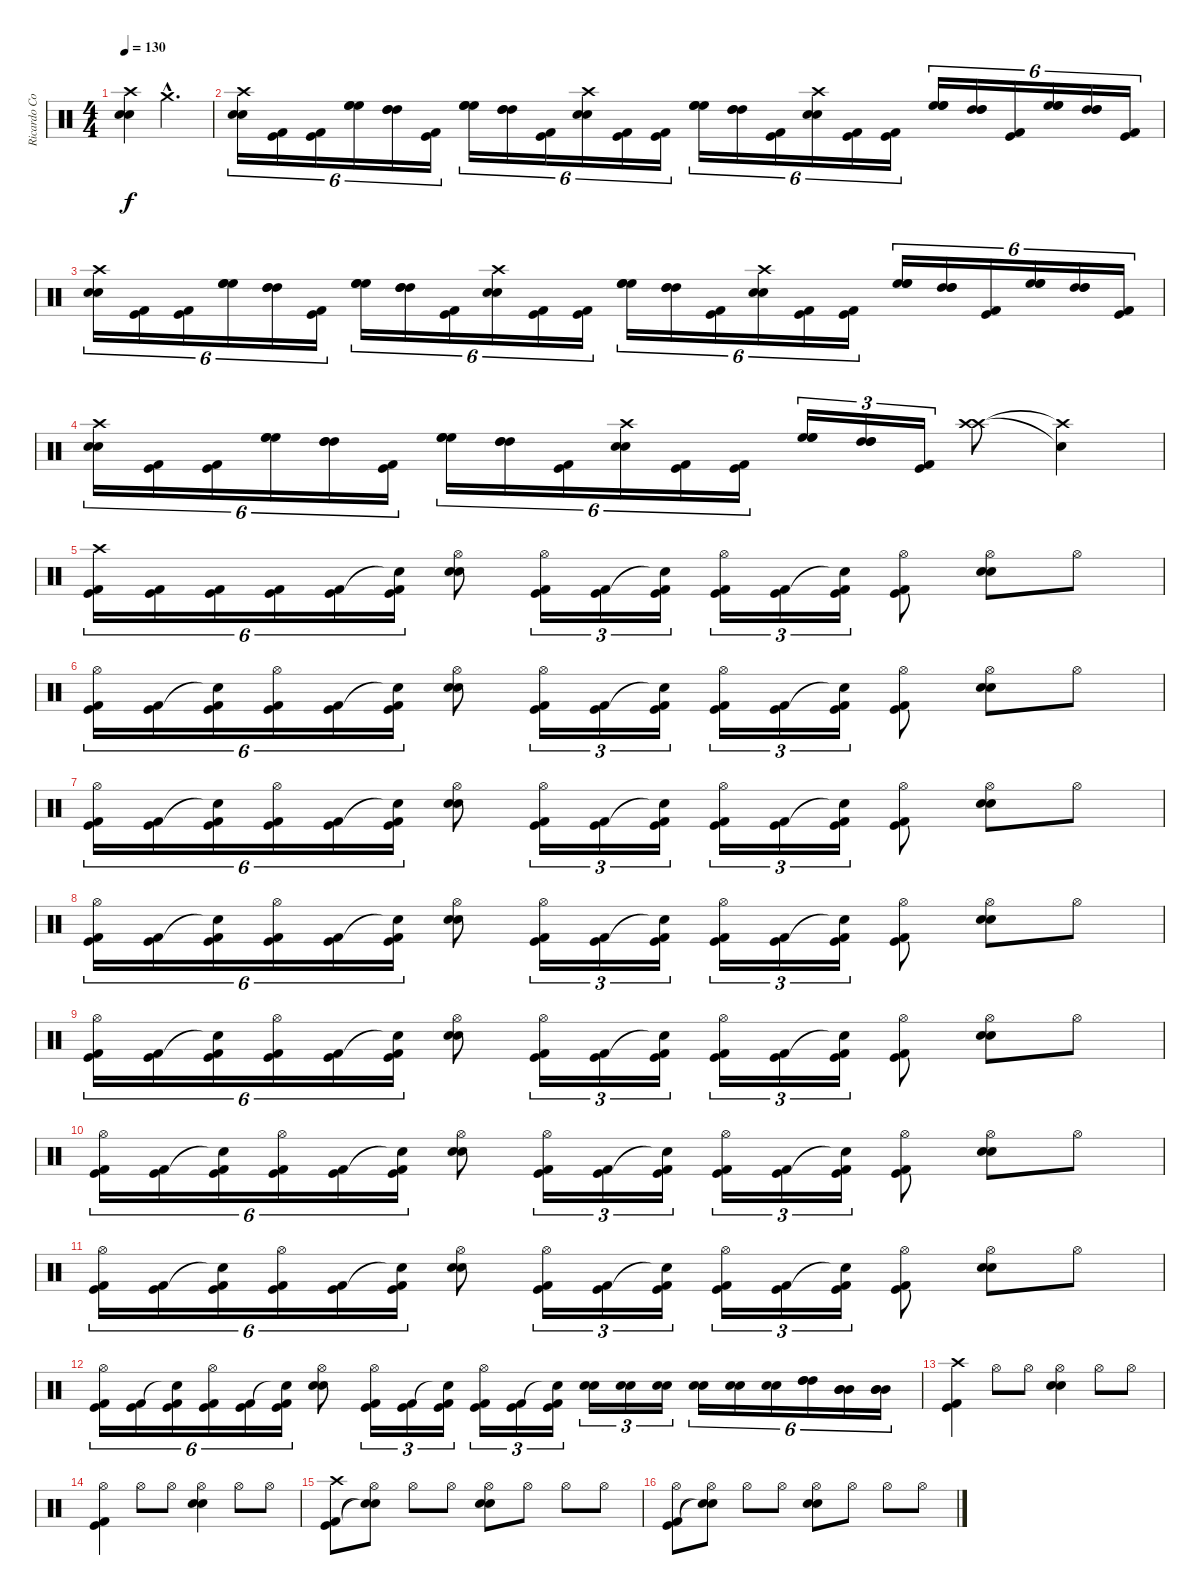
\track ("Ricardo Confessori" "Ricardo Co") {instrument percussion}
\staff {score}
\articulation defaults
\ts (4 4)
\tempo 130
\clef neutral
\ks c
("Crash high (hit)" "Electric Snare (hit)" "Snare (hit) 2").4{dy f} "Crash medium (hit)"{hac}.2{d} |
("Crash high (hit)" "Electric Snare (hit)" "Snare (hit) 2").16{tu (6 4)} ("Kick (hit)" "Kick (hit) 2").16{tu (6 4)} ("Kick (hit)" "Kick (hit) 2").16{tu (6 4)} ("High Floor Tom (hit)" "High Floor Tom (hit)" "High Floor Tom (hit)").16{tu (6 4)} ("High Tom (hit)" "High Tom (hit)" "High Tom (hit)").16{tu (6 4)} ("Kick (hit)" "Kick (hit) 2").16{tu (6 4)} ("High Floor Tom (hit)" "High Floor Tom (hit)" "High Floor Tom (hit)").16{tu (6 4)} ("High Tom (hit)" "High Tom (hit)" "High Tom (hit)").16{tu (6 4)} ("Kick (hit) 2" "Kick (hit)").16{tu (6 4)} ("Crash high (hit)" "Electric Snare (hit)" "Snare (hit) 2").16{tu (6 4)} ("Kick (hit)" "Kick (hit) 2").16{tu (6 4)} ("Kick (hit)" "Kick (hit) 2").16{tu (6 4)} ("High Floor Tom (hit)" "High Floor Tom (hit)" "High Floor Tom (hit)").16{tu (6 4)} ("High Tom (hit)" "High Tom (hit)" "High Tom (hit)").16{tu (6 4)} ("Kick (hit) 2" "Kick (hit)").16{tu (6 4)} ("Crash high (hit)" "Electric Snare (hit)" "Snare (hit) 2").16{tu (6 4)} ("Kick (hit)" "Kick (hit) 2").16{tu (6 4)} ("Kick (hit)" "Kick (hit) 2").16{tu (6 4)} ("High Floor Tom (hit)" "High Floor Tom (hit)" "High Floor Tom (hit)").16{tu (6 4)} ("High Tom (hit)" "High Tom (hit)" "High Tom (hit)").16{tu (6 4)} ("Kick (hit) 2" "Kick (hit)").16{tu (6 4)} ("High Floor Tom (hit)" "High Floor Tom (hit)" "High Floor Tom (hit)").16{tu (6 4)} ("High Tom (hit)" "High Tom (hit)" "High Tom (hit)").16{tu (6 4)} ("Kick (hit)" "Kick (hit) 2").16{tu (6 4)} |
("Crash high (hit)" "Electric Snare (hit)" "Snare (hit) 2").16{tu (6 4)} ("Kick (hit)" "Kick (hit) 2").16{tu (6 4)} ("Kick (hit)" "Kick (hit) 2").16{tu (6 4)} ("High Floor Tom (hit)" "High Floor Tom (hit)" "High Floor Tom (hit)").16{tu (6 4)} ("High Tom (hit)" "High Tom (hit)" "High Tom (hit)").16{tu (6 4)} ("Kick (hit)" "Kick (hit) 2").16{tu (6 4)} ("High Floor Tom (hit)" "High Floor Tom (hit)" "High Floor Tom (hit)").16{tu (6 4)} ("High Tom (hit)" "High Tom (hit)" "High Tom (hit)").16{tu (6 4)} ("Kick (hit) 2" "Kick (hit)").16{tu (6 4)} ("Crash high (hit)" "Electric Snare (hit)" "Snare (hit) 2").16{tu (6 4)} ("Kick (hit)" "Kick (hit) 2").16{tu (6 4)} ("Kick (hit)" "Kick (hit) 2").16{tu (6 4)} ("High Floor Tom (hit)" "High Floor Tom (hit)" "High Floor Tom (hit)").16{tu (6 4)} ("High Tom (hit)" "High Tom (hit)" "High Tom (hit)").16{tu (6 4)} ("Kick (hit) 2" "Kick (hit)").16{tu (6 4)} ("Crash high (hit)" "Electric Snare (hit)" "Snare (hit) 2").16{tu (6 4)} ("Kick (hit)" "Kick (hit) 2").16{tu (6 4)} ("Kick (hit)" "Kick (hit) 2").16{tu (6 4)} ("High Floor Tom (hit)" "High Floor Tom (hit)" "High Floor Tom (hit)").16{tu (6 4)} ("High Tom (hit)" "High Tom (hit)" "High Tom (hit)").16{tu (6 4)} ("Kick (hit) 2" "Kick (hit)").16{tu (6 4)} ("High Floor Tom (hit)" "High Floor Tom (hit)" "High Floor Tom (hit)").16{tu (6 4)} ("High Tom (hit)" "High Tom (hit)" "High Tom (hit)").16{tu (6 4)} ("Kick (hit)" "Kick (hit) 2").16{tu (6 4)} |
("Crash high (hit)" "Electric Snare (hit)" "Snare (hit) 2").16{tu (6 4)} ("Kick (hit)" "Kick (hit) 2").16{tu (6 4)} ("Kick (hit)" "Kick (hit) 2").16{tu (6 4)} ("High Floor Tom (hit)" "High Floor Tom (hit)" "High Floor Tom (hit)").16{tu (6 4)} ("High Tom (hit)" "High Tom (hit)" "High Tom (hit)").16{tu (6 4)} ("Kick (hit)" "Kick (hit) 2").16{tu (6 4)} ("High Floor Tom (hit)" "High Floor Tom (hit)" "High Floor Tom (hit)").16{tu (6 4)} ("High Tom (hit)" "High Tom (hit)" "High Tom (hit)").16{tu (6 4)} ("Kick (hit)" "Kick (hit) 2").16{tu (6 4)} ("Crash high (hit)" "Electric Snare (hit)" "Snare (hit) 2").16{tu (6 4)} ("Kick (hit)" "Kick (hit) 2").16{tu (6 4)} ("Kick (hit) 2" "Kick (hit)").16{tu (6 4)} ("High Floor Tom (hit)" "High Floor Tom (hit)" "High Floor Tom (hit)").16{tu (3 2)} ("High Tom (hit)" "High Tom (hit)" "High Tom (hit)").16{tu (3 2)} ("Kick (hit)" "Kick (hit) 2").16{tu (3 2)} ("Crash high (hit)" "Crash high (hit)").8 ("Crash high (hit)"{t} "Snare (hit)"{t}).4 |
("Crash high (hit)" "Kick (hit)" "Kick (hit) 2").16{tu (6 4)} ("Kick (hit)" "Kick (hit) 2").16{tu (6 4)} ("Kick (hit)" "Kick (hit) 2").16{tu (6 4)} ("Kick (hit)" "Kick (hit) 2").16{tu (6 4)} ("Kick (hit)" "Kick (hit) 2").16{tu (6 4)} ("Snare (hit)"{t} "Kick (hit)" "Kick (hit) 2").16{tu (6 4)} ("Hi-Hat (open)" "Electric Snare (hit)" "Snare (hit) 2").8 ("Hi-Hat (open)" "Kick (hit)" "Kick (hit) 2").16{tu (3 2)} ("Kick (hit)" "Kick (hit) 2").16{tu (3 2)} ("Snare (hit)"{t} "Kick (hit)" "Kick (hit) 2").16{tu (3 2)} ("Hi-Hat (open)" "Kick (hit)" "Kick (hit) 2").16{tu (3 2)} ("Kick (hit)" "Kick (hit) 2").16{tu (3 2)} ("Snare (hit)"{t} "Kick (hit)" "Kick (hit) 2").16{tu (3 2)} ("Hi-Hat (open)" "Kick (hit)" "Kick (hit) 2").8 ("Hi-Hat (open)" "Electric Snare (hit)" "Snare (hit) 2").8 "Hi-Hat (open)".8 |
("Hi-Hat (open)" "Kick (hit)" "Kick (hit) 2").16{tu (6 4)} ("Kick (hit)" "Kick (hit) 2").16{tu (6 4)} ("Snare (hit)"{t} "Kick (hit)" "Kick (hit) 2").16{tu (6 4)} ("Hi-Hat (open)" "Kick (hit)" "Kick (hit) 2").16{tu (6 4)} ("Kick (hit)" "Kick (hit) 2").16{tu (6 4)} ("Snare (hit)"{t} "Kick (hit)" "Kick (hit) 2").16{tu (6 4)} ("Hi-Hat (open)" "Electric Snare (hit)" "Snare (hit) 2").8 ("Hi-Hat (open)" "Kick (hit)" "Kick (hit) 2").16{tu (3 2)} ("Kick (hit)" "Kick (hit) 2").16{tu (3 2)} ("Snare (hit)"{t} "Kick (hit)" "Kick (hit) 2").16{tu (3 2)} ("Hi-Hat (open)" "Kick (hit)" "Kick (hit) 2").16{tu (3 2)} ("Kick (hit)" "Kick (hit) 2").16{tu (3 2)} ("Snare (hit)"{t} "Kick (hit)" "Kick (hit) 2").16{tu (3 2)} ("Hi-Hat (open)" "Kick (hit)" "Kick (hit) 2").8 ("Hi-Hat (open)" "Electric Snare (hit)" "Snare (hit) 2").8 "Hi-Hat (open)".8 |
("Hi-Hat (open)" "Kick (hit)" "Kick (hit) 2").16{tu (6 4)} ("Kick (hit)" "Kick (hit) 2").16{tu (6 4)} ("Snare (hit)"{t} "Kick (hit)" "Kick (hit) 2").16{tu (6 4)} ("Hi-Hat (open)" "Kick (hit)" "Kick (hit) 2").16{tu (6 4)} ("Kick (hit)" "Kick (hit) 2").16{tu (6 4)} ("Snare (hit)"{t} "Kick (hit)" "Kick (hit) 2").16{tu (6 4)} ("Hi-Hat (open)" "Electric Snare (hit)" "Snare (hit) 2").8 ("Hi-Hat (open)" "Kick (hit)" "Kick (hit) 2").16{tu (3 2)} ("Kick (hit)" "Kick (hit) 2").16{tu (3 2)} ("Snare (hit)"{t} "Kick (hit)" "Kick (hit) 2").16{tu (3 2)} ("Hi-Hat (open)" "Kick (hit)" "Kick (hit) 2").16{tu (3 2)} ("Kick (hit)" "Kick (hit) 2").16{tu (3 2)} ("Snare (hit)"{t} "Kick (hit)" "Kick (hit) 2").16{tu (3 2)} ("Hi-Hat (open)" "Kick (hit)" "Kick (hit) 2").8 ("Hi-Hat (open)" "Electric Snare (hit)" "Snare (hit) 2").8 "Hi-Hat (open)".8 |
("Hi-Hat (open)" "Kick (hit)" "Kick (hit) 2").16{tu (6 4)} ("Kick (hit)" "Kick (hit) 2").16{tu (6 4)} ("Snare (hit)"{t} "Kick (hit)" "Kick (hit) 2").16{tu (6 4)} ("Hi-Hat (open)" "Kick (hit)" "Kick (hit) 2").16{tu (6 4)} ("Kick (hit)" "Kick (hit) 2").16{tu (6 4)} ("Snare (hit)"{t} "Kick (hit)" "Kick (hit) 2").16{tu (6 4)} ("Hi-Hat (open)" "Electric Snare (hit)" "Snare (hit) 2").8 ("Hi-Hat (open)" "Kick (hit)" "Kick (hit) 2").16{tu (3 2)} ("Kick (hit)" "Kick (hit) 2").16{tu (3 2)} ("Snare (hit)"{t} "Kick (hit)" "Kick (hit) 2").16{tu (3 2)} ("Hi-Hat (open)" "Kick (hit)" "Kick (hit) 2").16{tu (3 2)} ("Kick (hit)" "Kick (hit) 2").16{tu (3 2)} ("Snare (hit)"{t} "Kick (hit)" "Kick (hit) 2").16{tu (3 2)} ("Hi-Hat (open)" "Kick (hit)" "Kick (hit) 2").8 ("Hi-Hat (open)" "Electric Snare (hit)" "Snare (hit) 2").8 "Hi-Hat (open)".8 |
("Hi-Hat (open)" "Kick (hit)" "Kick (hit) 2").16{tu (6 4)} ("Kick (hit)" "Kick (hit) 2").16{tu (6 4)} ("Snare (hit)"{t} "Kick (hit)" "Kick (hit) 2").16{tu (6 4)} ("Hi-Hat (open)" "Kick (hit)" "Kick (hit) 2").16{tu (6 4)} ("Kick (hit)" "Kick (hit) 2").16{tu (6 4)} ("Snare (hit)"{t} "Kick (hit)" "Kick (hit) 2").16{tu (6 4)} ("Hi-Hat (open)" "Electric Snare (hit)" "Snare (hit) 2").8 ("Hi-Hat (open)" "Kick (hit)" "Kick (hit) 2").16{tu (3 2)} ("Kick (hit)" "Kick (hit) 2").16{tu (3 2)} ("Snare (hit)"{t} "Kick (hit)" "Kick (hit) 2").16{tu (3 2)} ("Hi-Hat (open)" "Kick (hit)" "Kick (hit) 2").16{tu (3 2)} ("Kick (hit)" "Kick (hit) 2").16{tu (3 2)} ("Snare (hit)"{t} "Kick (hit)" "Kick (hit) 2").16{tu (3 2)} ("Hi-Hat (open)" "Kick (hit)" "Kick (hit) 2").8 ("Hi-Hat (open)" "Electric Snare (hit)" "Snare (hit) 2").8 "Hi-Hat (open)".8 |
("Hi-Hat (open)" "Kick (hit)" "Kick (hit) 2").16{tu (6 4)} ("Kick (hit)" "Kick (hit) 2").16{tu (6 4)} ("Snare (hit)"{t} "Kick (hit)" "Kick (hit) 2").16{tu (6 4)} ("Hi-Hat (open)" "Kick (hit)" "Kick (hit) 2").16{tu (6 4)} ("Kick (hit)" "Kick (hit) 2").16{tu (6 4)} ("Snare (hit)"{t} "Kick (hit)" "Kick (hit) 2").16{tu (6 4)} ("Hi-Hat (open)" "Electric Snare (hit)" "Snare (hit) 2").8 ("Hi-Hat (open)" "Kick (hit)" "Kick (hit) 2").16{tu (3 2)} ("Kick (hit)" "Kick (hit) 2").16{tu (3 2)} ("Snare (hit)"{t} "Kick (hit)" "Kick (hit) 2").16{tu (3 2)} ("Hi-Hat (open)" "Kick (hit)" "Kick (hit) 2").16{tu (3 2)} ("Kick (hit)" "Kick (hit) 2").16{tu (3 2)} ("Snare (hit)"{t} "Kick (hit)" "Kick (hit) 2").16{tu (3 2)} ("Hi-Hat (open)" "Kick (hit)" "Kick (hit) 2").8 ("Hi-Hat (open)" "Electric Snare (hit)" "Snare (hit) 2").8 "Hi-Hat (open)".8 |
("Hi-Hat (open)" "Kick (hit)" "Kick (hit) 2").16{tu (6 4)} ("Kick (hit)" "Kick (hit) 2").16{tu (6 4)} ("Snare (hit)"{t} "Kick (hit)" "Kick (hit) 2").16{tu (6 4)} ("Hi-Hat (open)" "Kick (hit)" "Kick (hit) 2").16{tu (6 4)} ("Kick (hit)" "Kick (hit) 2").16{tu (6 4)} ("Snare (hit)"{t} "Kick (hit)" "Kick (hit) 2").16{tu (6 4)} ("Hi-Hat (open)" "Electric Snare (hit)" "Snare (hit) 2").8 ("Hi-Hat (open)" "Kick (hit)" "Kick (hit) 2").16{tu (3 2)} ("Kick (hit)" "Kick (hit) 2").16{tu (3 2)} ("Snare (hit)"{t} "Kick (hit)" "Kick (hit) 2").16{tu (3 2)} ("Hi-Hat (open)" "Kick (hit)" "Kick (hit) 2").16{tu (3 2)} ("Kick (hit)" "Kick (hit) 2").16{tu (3 2)} ("Snare (hit)"{t} "Kick (hit)" "Kick (hit) 2").16{tu (3 2)} ("Hi-Hat (open)" "Kick (hit)" "Kick (hit) 2").8 ("Hi-Hat (open)" "Electric Snare (hit)" "Snare (hit) 2").8 "Hi-Hat (open)".8 |
("Hi-Hat (open)" "Kick (hit)" "Kick (hit) 2").16{tu (6 4)} ("Kick (hit)" "Kick (hit) 2").16{tu (6 4)} ("Snare (hit)"{t} "Kick (hit)" "Kick (hit) 2").16{tu (6 4)} ("Hi-Hat (open)" "Kick (hit)" "Kick (hit) 2").16{tu (6 4)} ("Kick (hit)" "Kick (hit) 2").16{tu (6 4)} ("Snare (hit)"{t} "Kick (hit)" "Kick (hit) 2").16{tu (6 4)} ("Hi-Hat (open)" "Electric Snare (hit)" "Snare (hit) 2").8 ("Hi-Hat (open)" "Kick (hit)" "Kick (hit) 2").16{tu (3 2)} ("Kick (hit)" "Kick (hit) 2").16{tu (3 2)} ("Snare (hit)"{t} "Kick (hit)" "Kick (hit) 2").16{tu (3 2)} ("Hi-Hat (open)" "Kick (hit)" "Kick (hit) 2").16{tu (3 2)} ("Kick (hit)" "Kick (hit) 2").16{tu (3 2)} ("Snare (hit)"{t} "Kick (hit)" "Kick (hit) 2").16{tu (3 2)} ("Electric Snare (hit)" "Snare (hit) 2").16{tu (3 2)} ("Electric Snare (hit)" "Snare (hit) 2").16{tu (3 2)} ("Electric Snare (hit)" "Snare (hit) 2").16{tu (3 2)} ("Electric Snare (hit)" "Snare (hit) 2").16{tu (6 4)} ("Electric Snare (hit)" "Snare (hit) 2").16{tu (6 4)} ("Electric Snare (hit)" "Snare (hit) 2").16{tu (6 4)} ("High Tom (hit)" "High Tom (hit)" "High Tom (hit)").16{tu (6 4)} ("Mid Tom (hit)" "Mid Tom (hit)" "Mid Tom (hit)").16{tu (6 4)} ("Mid Tom (hit)" "Mid Tom (hit)" "Mid Tom (hit)").16{tu (6 4)} |
("Crash high (hit)" "Kick (hit)" "Kick (hit) 2").4 "Hi-Hat (open)".8 "Hi-Hat (open)".8 ("Hi-Hat (open)" "Electric Snare (hit)" "Snare (hit) 2").4 "Hi-Hat (open)".8 "Hi-Hat (open)".8 |
("Hi-Hat (open)" "Kick (hit)" "Kick (hit) 2").4 "Hi-Hat (open)".8 "Hi-Hat (open)".8 ("Hi-Hat (open)" "Electric Snare (hit)" "Snare (hit) 2").4 "Hi-Hat (open)".8 "Hi-Hat (open)".8 |
("Crash high (hit)" "Kick (hit)" "Kick (hit) 2").8 ("Hi-Hat (open)" "Snare (hit)"{t} "Snare (hit)"{t}).8 "Hi-Hat (open)".8 "Hi-Hat (open)".8 ("Hi-Hat (open)" "Electric Snare (hit)" "Snare (hit) 2").8 "Hi-Hat (open)".8 "Hi-Hat (open)".8 "Hi-Hat (open)".8 |
("Hi-Hat (open)" "Kick (hit)" "Kick (hit) 2").8 ("Hi-Hat (open)" "Snare (hit)"{t} "Snare (hit)"{t}).8 "Hi-Hat (open)".8 "Hi-Hat (open)".8 ("Hi-Hat (open)" "Electric Snare (hit)" "Snare (hit) 2").8 "Hi-Hat (open)".8 "Hi-Hat (open)".8 "Hi-Hat (open)".8
